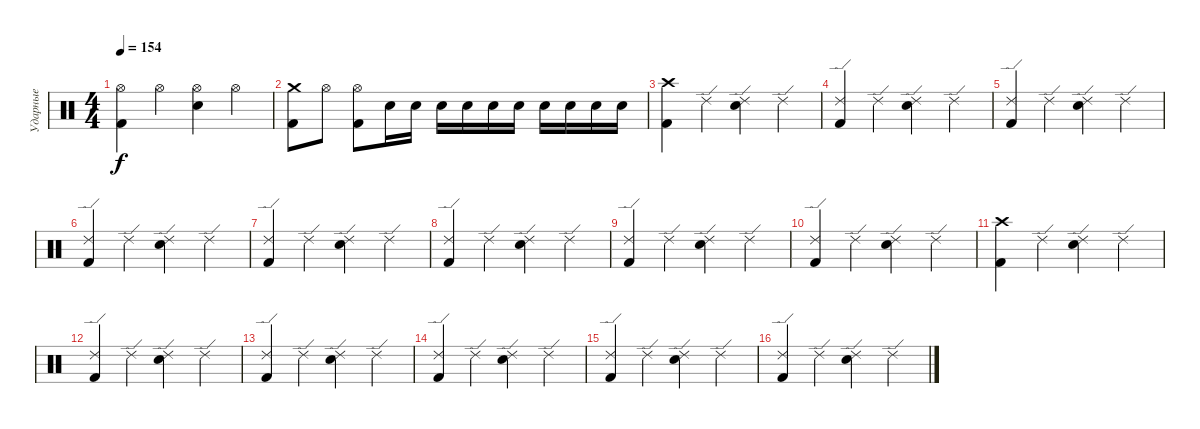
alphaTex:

\track ("Ударные" "Ударные") {instrument percussion}
\staff {score}
\articulation defaults
\ts (4 4)
\tempo 154
\clef neutral
\ks c
("Hi-Hat (open)" "Kick (hit) 2").4{dy f} "Hi-Hat (open)".4 ("Hi-Hat (open)" "Snare (hit) 2").4 "Hi-Hat (open)".4 |
("Crash medium (hit)" "Kick (hit) 2").8 "Hi-Hat (open)".8 ("Hi-Hat (open)" "Kick (hit) 2").8 "Snare (hit) 2".16 "Snare (hit) 2".16 "Snare (hit) 2".16 "Snare (hit) 2".16 "Snare (hit) 2".16 "Snare (hit) 2".16 "Snare (hit) 2".16 "Snare (hit) 2".16 "Snare (hit) 2".16 "Snare (hit) 2".16 |
("Crash high (hit)" "Kick (hit) 2").4 "Ride (edge) 2".4 ("Ride (edge) 2" "Snare (hit) 2").4 "Ride (edge) 2".4 |
("Ride (edge) 2" "Kick (hit) 2").4 "Ride (edge) 2".4 ("Ride (edge) 2" "Snare (hit) 2").4 "Ride (edge) 2".4 |
("Ride (edge) 2" "Kick (hit) 2").4 "Ride (edge) 2".4 ("Ride (edge) 2" "Snare (hit) 2").4 "Ride (edge) 2".4 |
("Ride (edge) 2" "Kick (hit) 2").4 "Ride (edge) 2".4 ("Ride (edge) 2" "Snare (hit) 2").4 "Ride (edge) 2".4 |
("Ride (edge) 2" "Kick (hit) 2").4 "Ride (edge) 2".4 ("Ride (edge) 2" "Snare (hit) 2").4 "Ride (edge) 2".4 |
("Ride (edge) 2" "Kick (hit) 2").4 "Ride (edge) 2".4 ("Ride (edge) 2" "Snare (hit) 2").4 "Ride (edge) 2".4 |
("Ride (edge) 2" "Kick (hit) 2").4 "Ride (edge) 2".4 ("Ride (edge) 2" "Snare (hit) 2").4 "Ride (edge) 2".4 |
("Ride (edge) 2" "Kick (hit) 2").4 "Ride (edge) 2".4 ("Ride (edge) 2" "Snare (hit) 2").4 "Ride (edge) 2".4 |
("Crash high (hit)" "Kick (hit) 2").4 "Ride (edge) 2".4 ("Ride (edge) 2" "Snare (hit) 2").4 "Ride (edge) 2".4 |
("Ride (edge) 2" "Kick (hit) 2").4 "Ride (edge) 2".4 ("Ride (edge) 2" "Snare (hit) 2").4 "Ride (edge) 2".4 |
("Ride (edge) 2" "Kick (hit) 2").4 "Ride (edge) 2".4 ("Ride (edge) 2" "Snare (hit) 2").4 "Ride (edge) 2".4 |
("Ride (edge) 2" "Kick (hit) 2").4 "Ride (edge) 2".4 ("Ride (edge) 2" "Snare (hit) 2").4 "Ride (edge) 2".4 |
("Ride (edge) 2" "Kick (hit) 2").4 "Ride (edge) 2".4 ("Ride (edge) 2" "Snare (hit) 2").4 "Ride (edge) 2".4 |
("Ride (edge) 2" "Kick (hit) 2").4 "Ride (edge) 2".4 ("Ride (edge) 2" "Snare (hit) 2").4 "Ride (edge) 2".4
